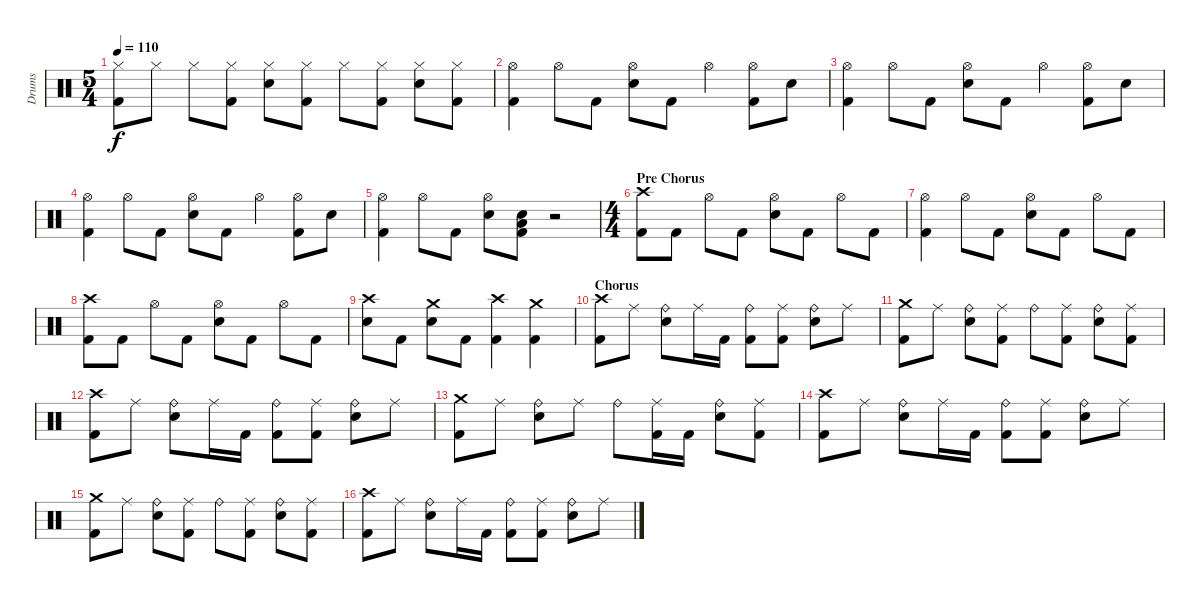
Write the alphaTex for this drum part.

\track ("Drums" "Drums") {instrument percussion}
\staff {score}
\articulation defaults
\ts (5 4)
\tempo 110
\clef neutral
\ks c
("Hi-Hat (closed)" "Kick (hit) 2").8{dy f} "Hi-Hat (closed)".8 "Hi-Hat (closed)".8 ("Hi-Hat (closed)" "Kick (hit) 2").8 ("Hi-Hat (closed)" "Electric Snare (hit)").8 ("Hi-Hat (closed)" "Kick (hit) 2").8 "Hi-Hat (closed)".8 ("Hi-Hat (closed)" "Kick (hit) 2").8 ("Hi-Hat (closed)" "Electric Snare (hit)").8 ("Hi-Hat (closed)" "Kick (hit) 2").8 |
("Hi-Hat (open)" "Kick (hit) 2").4 "Hi-Hat (open)".8 "Kick (hit) 2".8 ("Hi-Hat (open)" "Electric Snare (hit)").8 "Kick (hit) 2".8 "Hi-Hat (open)".4 ("Hi-Hat (open)" "Kick (hit) 2").8 "Electric Snare (hit)".8 |
("Hi-Hat (open)" "Kick (hit) 2").4 "Hi-Hat (open)".8 "Kick (hit) 2".8 ("Hi-Hat (open)" "Electric Snare (hit)").8 "Kick (hit) 2".8 "Hi-Hat (open)".4 ("Hi-Hat (open)" "Kick (hit) 2").8 "Electric Snare (hit)".8 |
("Hi-Hat (open)" "Kick (hit) 2").4 "Hi-Hat (open)".8 "Kick (hit) 2".8 ("Hi-Hat (open)" "Electric Snare (hit)").8 "Kick (hit) 2".8 "Hi-Hat (open)".4 ("Hi-Hat (open)" "Kick (hit) 2").8 "Electric Snare (hit)".8 |
("Hi-Hat (open)" "Kick (hit) 2").4 "Hi-Hat (open)".8 "Kick (hit) 2".8 ("Hi-Hat (open)" "Electric Snare (hit)").8 ("Electric Snare (hit)" "Low Floor Tom (hit)" "Kick (hit) 2").8 r.2 |
\ts (4 4)
\section ("" "Pre Chorus")
("Crash high (hit)" "Kick (hit) 2").8 "Kick (hit) 2".8 "Hi-Hat (open)".8 "Kick (hit) 2".8 ("Hi-Hat (open)" "Electric Snare (hit)").8 "Kick (hit) 2".8 "Hi-Hat (open)".8 "Kick (hit) 2".8 |
("Hi-Hat (open)" "Kick (hit) 2").4 "Hi-Hat (open)".8 "Kick (hit) 2".8 ("Hi-Hat (open)" "Electric Snare (hit)").8 "Kick (hit) 2".8 "Hi-Hat (open)".8 "Kick (hit) 2".8 |
("Crash high (hit)" "Kick (hit) 2").8 "Kick (hit) 2".8 "Hi-Hat (open)".8 "Kick (hit) 2".8 ("Hi-Hat (open)" "Electric Snare (hit)").8 "Kick (hit) 2".8 "Hi-Hat (open)".8 "Kick (hit) 2".8 |
("Crash high (hit)" "Electric Snare (hit)").8 "Kick (hit) 2".8 ("Crash medium (hit)" "Electric Snare (hit)").8 "Kick (hit) 2".8 ("Crash high (hit)" "Kick (hit) 2").4 ("Crash medium (hit)" "Kick (hit) 2").4 |
\section ("" "Chorus")
("Crash high (hit)" "Kick (hit) 2").8 "Ride (middle)".8 ("Ride (bell)" "Electric Snare (hit)").8 "Ride (middle)".16 "Kick (hit) 2".16 ("Ride (bell)" "Kick (hit) 2").8 ("Ride (middle)" "Kick (hit) 2").8 ("Ride (bell)" "Electric Snare (hit)").8 "Ride (middle)".8 |
("Crash medium (hit)" "Kick (hit) 2").8 "Ride (middle)".8 ("Ride (bell)" "Electric Snare (hit)").8 ("Ride (middle)" "Kick (hit) 2").8 "Ride (bell)".8 ("Ride (middle)" "Kick (hit) 2").8 ("Ride (bell)" "Electric Snare (hit)").8 ("Ride (middle)" "Kick (hit) 2").8 |
("Crash high (hit)" "Kick (hit) 2").8 "Ride (middle)".8 ("Ride (bell)" "Electric Snare (hit)").8 "Ride (middle)".16 "Kick (hit) 2".16 ("Ride (bell)" "Kick (hit) 2").8 ("Ride (middle)" "Kick (hit) 2").8 ("Ride (bell)" "Electric Snare (hit)").8 "Ride (middle)".8 |
("Crash medium (hit)" "Kick (hit) 2").8 "Ride (middle)".8 ("Ride (bell)" "Electric Snare (hit)").8 "Ride (middle)".8 "Ride (bell)".8 ("Ride (middle)" "Kick (hit) 2").16 "Kick (hit) 2".16 ("Ride (bell)" "Electric Snare (hit)").8 ("Ride (middle)" "Kick (hit) 2").8 |
("Crash high (hit)" "Kick (hit) 2").8 "Ride (middle)".8 ("Ride (bell)" "Electric Snare (hit)").8 "Ride (middle)".16 "Kick (hit) 2".16 ("Ride (bell)" "Kick (hit) 2").8 ("Ride (middle)" "Kick (hit) 2").8 ("Ride (bell)" "Electric Snare (hit)").8 "Ride (middle)".8 |
("Crash medium (hit)" "Kick (hit) 2").8 "Ride (middle)".8 ("Ride (bell)" "Electric Snare (hit)").8 ("Ride (middle)" "Kick (hit) 2").8 "Ride (bell)".8 ("Ride (middle)" "Kick (hit) 2").8 ("Ride (bell)" "Electric Snare (hit)").8 ("Ride (middle)" "Kick (hit) 2").8 |
("Crash high (hit)" "Kick (hit) 2").8 "Ride (middle)".8 ("Ride (bell)" "Electric Snare (hit)").8 "Ride (middle)".16 "Kick (hit) 2".16 ("Ride (bell)" "Kick (hit) 2").8 ("Ride (middle)" "Kick (hit) 2").8 ("Ride (bell)" "Electric Snare (hit)").8 "Ride (middle)".8
